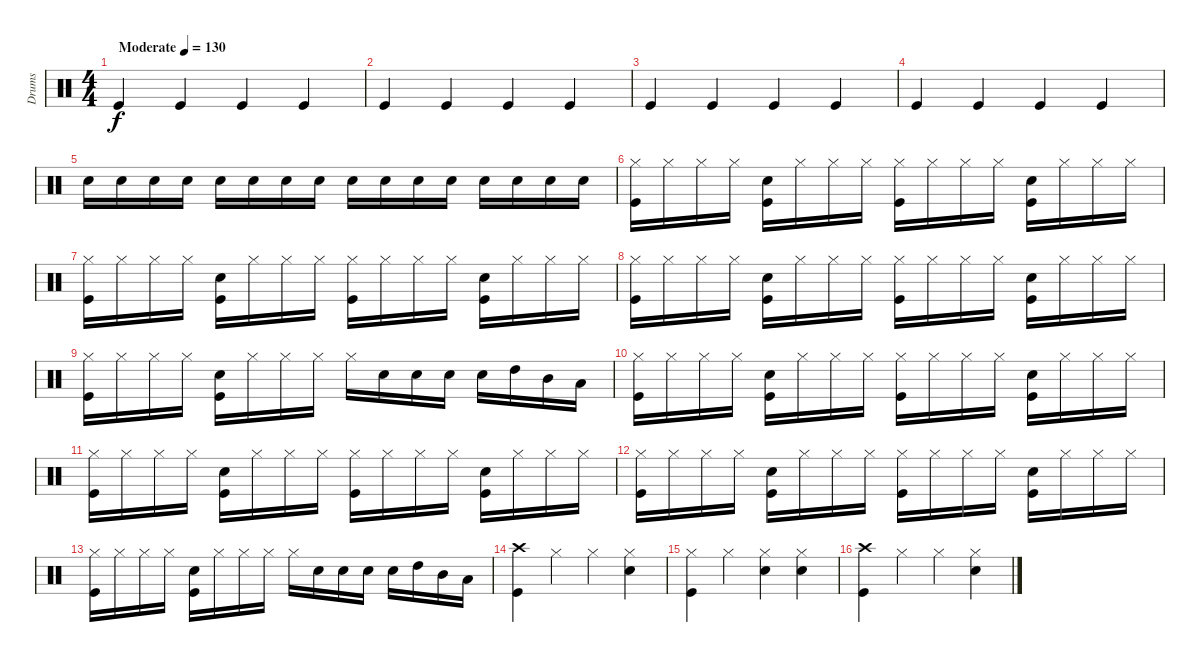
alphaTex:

\track ("Drums" "Drums") {instrument percussion}
\staff {score}
\articulation defaults
\ts (4 4)
\tempo (130 "Moderate")
\clef neutral
\ks c "Kick (hit)".4{dy f} "Kick (hit)".4 "Kick (hit)".4 "Kick (hit)".4
|
"Kick (hit)".4 "Kick (hit)".4 "Kick (hit)".4 "Kick (hit)".4 |
"Kick (hit)".4 "Kick (hit)".4 "Kick (hit)".4 "Kick (hit)".4 |
"Kick (hit)".4 "Kick (hit)".4 "Kick (hit)".4 "Kick (hit)".4 |
"Snare (hit) 2".16 "Snare (hit) 2".16 "Snare (hit) 2".16 "Snare (hit) 2".16 "Snare (hit) 2".16 "Snare (hit) 2".16 "Snare (hit) 2".16 "Snare (hit) 2".16 "Snare (hit) 2".16 "Snare (hit) 2".16 "Snare (hit) 2".16 "Snare (hit) 2".16 "Snare (hit) 2".16 "Snare (hit) 2".16 "Snare (hit) 2".16 "Snare (hit) 2".16 |
("Hi-Hat (closed)" "Kick (hit)").16 "Hi-Hat (closed)".16 "Hi-Hat (closed)".16 "Hi-Hat (closed)".16 ("Snare (hit) 2" "Kick (hit)").16 "Hi-Hat (closed)".16 "Hi-Hat (closed)".16 "Hi-Hat (closed)".16 ("Hi-Hat (closed)" "Kick (hit)").16 "Hi-Hat (closed)".16 "Hi-Hat (closed)".16 "Hi-Hat (closed)".16 ("Snare (hit) 2" "Kick (hit)").16 "Hi-Hat (closed)".16 "Hi-Hat (closed)".16 "Hi-Hat (closed)".16 |
("Hi-Hat (closed)" "Kick (hit)").16 "Hi-Hat (closed)".16 "Hi-Hat (closed)".16 "Hi-Hat (closed)".16 ("Snare (hit) 2" "Kick (hit)").16 "Hi-Hat (closed)".16 "Hi-Hat (closed)".16 "Hi-Hat (closed)".16 ("Hi-Hat (closed)" "Kick (hit)").16 "Hi-Hat (closed)".16 "Hi-Hat (closed)".16 "Hi-Hat (closed)".16 ("Snare (hit) 2" "Kick (hit)").16 "Hi-Hat (closed)".16 "Hi-Hat (closed)".16 "Hi-Hat (closed)".16 |
("Hi-Hat (closed)" "Kick (hit)").16 "Hi-Hat (closed)".16 "Hi-Hat (closed)".16 "Hi-Hat (closed)".16 ("Snare (hit) 2" "Kick (hit)").16 "Hi-Hat (closed)".16 "Hi-Hat (closed)".16 "Hi-Hat (closed)".16 ("Hi-Hat (closed)" "Kick (hit)").16 "Hi-Hat (closed)".16 "Hi-Hat (closed)".16 "Hi-Hat (closed)".16 ("Snare (hit) 2" "Kick (hit)").16 "Hi-Hat (closed)".16 "Hi-Hat (closed)".16 "Hi-Hat (closed)".16 |
("Hi-Hat (closed)" "Kick (hit)").16 "Hi-Hat (closed)".16 "Hi-Hat (closed)".16 "Hi-Hat (closed)".16 ("Snare (hit) 2" "Kick (hit)").16 "Hi-Hat (closed)".16 "Hi-Hat (closed)".16 "Hi-Hat (closed)".16 "Hi-Hat (closed)".16 "Snare (hit) 2".16 "Snare (hit) 2".16 "Snare (hit) 2".16 "Snare (hit) 2".16 "High Tom (hit)".16 "Mid Tom (hit)".16 "Low Tom (hit)".16 |
("Hi-Hat (closed)" "Kick (hit)").16 "Hi-Hat (closed)".16 "Hi-Hat (closed)".16 "Hi-Hat (closed)".16 ("Snare (hit) 2" "Kick (hit)").16 "Hi-Hat (closed)".16 "Hi-Hat (closed)".16 "Hi-Hat (closed)".16 ("Hi-Hat (closed)" "Kick (hit)").16 "Hi-Hat (closed)".16 "Hi-Hat (closed)".16 "Hi-Hat (closed)".16 ("Snare (hit) 2" "Kick (hit)").16 "Hi-Hat (closed)".16 "Hi-Hat (closed)".16 "Hi-Hat (closed)".16 |
("Hi-Hat (closed)" "Kick (hit)").16 "Hi-Hat (closed)".16 "Hi-Hat (closed)".16 "Hi-Hat (closed)".16 ("Snare (hit) 2" "Kick (hit)").16 "Hi-Hat (closed)".16 "Hi-Hat (closed)".16 "Hi-Hat (closed)".16 ("Hi-Hat (closed)" "Kick (hit)").16 "Hi-Hat (closed)".16 "Hi-Hat (closed)".16 "Hi-Hat (closed)".16 ("Snare (hit) 2" "Kick (hit)").16 "Hi-Hat (closed)".16 "Hi-Hat (closed)".16 "Hi-Hat (closed)".16 |
("Hi-Hat (closed)" "Kick (hit)").16 "Hi-Hat (closed)".16 "Hi-Hat (closed)".16 "Hi-Hat (closed)".16 ("Snare (hit) 2" "Kick (hit)").16 "Hi-Hat (closed)".16 "Hi-Hat (closed)".16 "Hi-Hat (closed)".16 ("Hi-Hat (closed)" "Kick (hit)").16 "Hi-Hat (closed)".16 "Hi-Hat (closed)".16 "Hi-Hat (closed)".16 ("Snare (hit) 2" "Kick (hit)").16 "Hi-Hat (closed)".16 "Hi-Hat (closed)".16 "Hi-Hat (closed)".16 |
("Hi-Hat (closed)" "Kick (hit)").16 "Hi-Hat (closed)".16 "Hi-Hat (closed)".16 "Hi-Hat (closed)".16 ("Snare (hit) 2" "Kick (hit)").16 "Hi-Hat (closed)".16 "Hi-Hat (closed)".16 "Hi-Hat (closed)".16 "Hi-Hat (closed)".16 "Snare (hit) 2".16 "Snare (hit) 2".16 "Snare (hit) 2".16 "Snare (hit) 2".16 "High Tom (hit)".16 "Mid Tom (hit)".16 "Low Tom (hit)".16 |
("Crash high (hit)" "Kick (hit)").4 "Hi-Hat (closed)".4 "Hi-Hat (closed)".4 ("Hi-Hat (closed)" "Snare (hit) 2").4 |
("Hi-Hat (closed)" "Kick (hit)").4 "Hi-Hat (closed)".4 ("Hi-Hat (closed)" "Snare (hit) 2").4 ("Hi-Hat (closed)" "Snare (hit) 2").4 |
("Crash high (hit)" "Kick (hit)").4 "Hi-Hat (closed)".4 "Hi-Hat (closed)".4 ("Hi-Hat (closed)" "Snare (hit) 2").4
